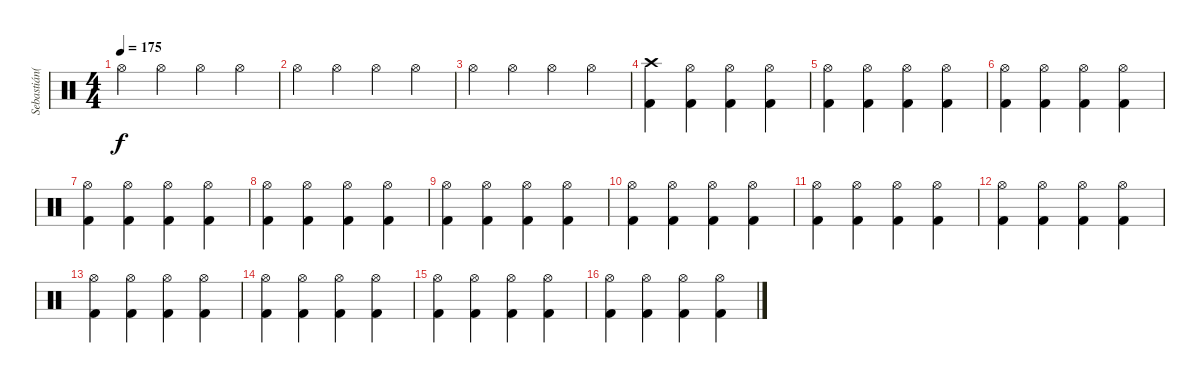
\track ("Sebastián(Bateria)" "Sebastián(") {instrument percussion}
\staff {score}
\articulation defaults
\ts (4 4)
\tempo 175
\clef neutral
\ks c "Hi-Hat (open)".4{dy f} "Hi-Hat (open)".4 "Hi-Hat (open)".4 "Hi-Hat (open)".4
|
"Hi-Hat (open)".4 "Hi-Hat (open)".4 "Hi-Hat (open)".4 "Hi-Hat (open)".4 |
"Hi-Hat (open)".4 "Hi-Hat (open)".4 "Hi-Hat (open)".4 "Hi-Hat (open)".4 |
("Crash high (hit)" "Kick (hit) 2").4 ("Hi-Hat (open)" "Kick (hit) 2").4 ("Hi-Hat (open)" "Kick (hit) 2").4 ("Hi-Hat (open)" "Kick (hit) 2").4 |
("Hi-Hat (open)" "Kick (hit) 2").4 ("Hi-Hat (open)" "Kick (hit) 2").4 ("Hi-Hat (open)" "Kick (hit) 2").4 ("Hi-Hat (open)" "Kick (hit) 2").4 |
("Hi-Hat (open)" "Kick (hit) 2").4 ("Hi-Hat (open)" "Kick (hit) 2").4 ("Hi-Hat (open)" "Kick (hit) 2").4 ("Hi-Hat (open)" "Kick (hit) 2").4 |
("Hi-Hat (open)" "Kick (hit) 2").4 ("Hi-Hat (open)" "Kick (hit) 2").4 ("Hi-Hat (open)" "Kick (hit) 2").4 ("Hi-Hat (open)" "Kick (hit) 2").4 |
("Hi-Hat (open)" "Kick (hit) 2").4 ("Hi-Hat (open)" "Kick (hit) 2").4 ("Hi-Hat (open)" "Kick (hit) 2").4 ("Hi-Hat (open)" "Kick (hit) 2").4 |
("Hi-Hat (open)" "Kick (hit) 2").4 ("Hi-Hat (open)" "Kick (hit) 2").4 ("Hi-Hat (open)" "Kick (hit) 2").4 ("Hi-Hat (open)" "Kick (hit) 2").4 |
("Hi-Hat (open)" "Kick (hit) 2").4 ("Hi-Hat (open)" "Kick (hit) 2").4 ("Hi-Hat (open)" "Kick (hit) 2").4 ("Hi-Hat (open)" "Kick (hit) 2").4 |
("Hi-Hat (open)" "Kick (hit) 2").4 ("Hi-Hat (open)" "Kick (hit) 2").4 ("Hi-Hat (open)" "Kick (hit) 2").4 ("Hi-Hat (open)" "Kick (hit) 2").4 |
("Hi-Hat (open)" "Kick (hit) 2").4 ("Hi-Hat (open)" "Kick (hit) 2").4 ("Hi-Hat (open)" "Kick (hit) 2").4 ("Hi-Hat (open)" "Kick (hit) 2").4 |
("Hi-Hat (open)" "Kick (hit) 2").4 ("Hi-Hat (open)" "Kick (hit) 2").4 ("Hi-Hat (open)" "Kick (hit) 2").4 ("Hi-Hat (open)" "Kick (hit) 2").4 |
("Hi-Hat (open)" "Kick (hit) 2").4 ("Hi-Hat (open)" "Kick (hit) 2").4 ("Hi-Hat (open)" "Kick (hit) 2").4 ("Hi-Hat (open)" "Kick (hit) 2").4 |
("Hi-Hat (open)" "Kick (hit) 2").4 ("Hi-Hat (open)" "Kick (hit) 2").4 ("Hi-Hat (open)" "Kick (hit) 2").4 ("Hi-Hat (open)" "Kick (hit) 2").4 |
("Hi-Hat (open)" "Kick (hit) 2").4 ("Hi-Hat (open)" "Kick (hit) 2").4 ("Hi-Hat (open)" "Kick (hit) 2").4 ("Hi-Hat (open)" "Kick (hit) 2").4
